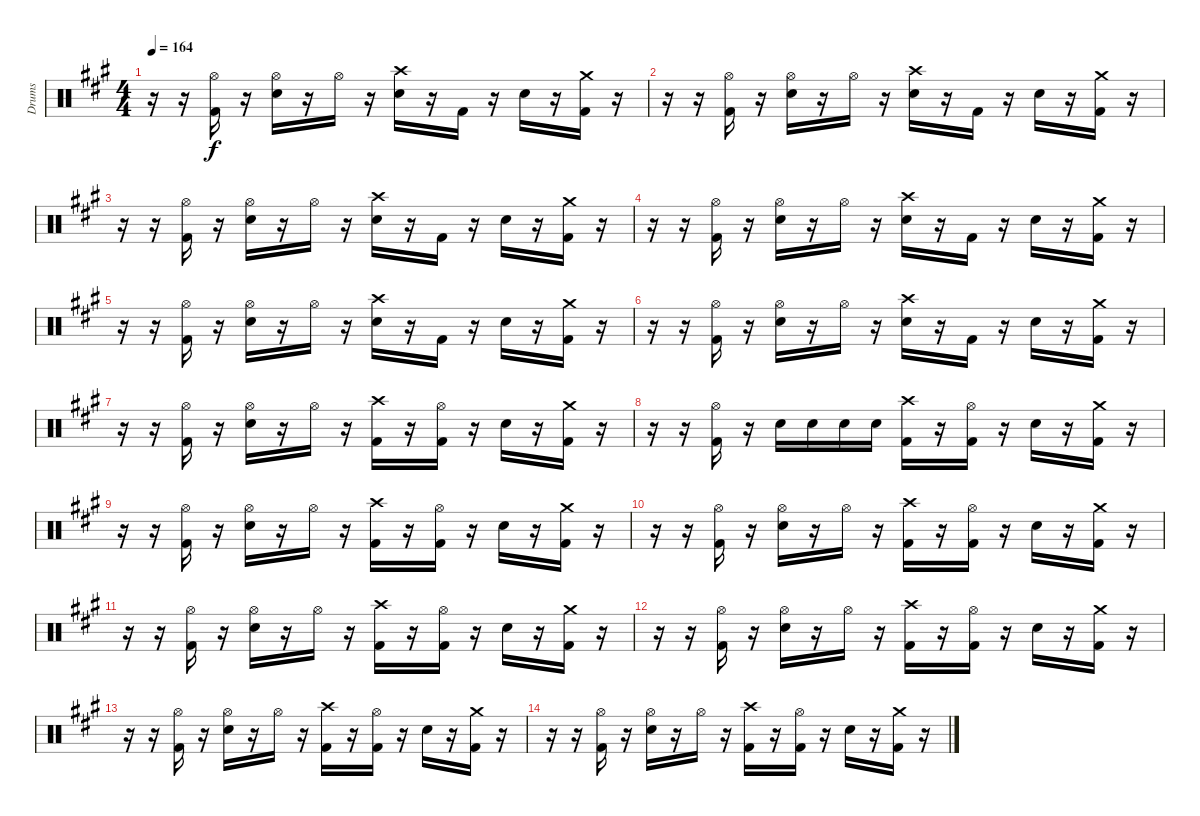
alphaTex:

\track ("Drums" "Drums") {instrument percussion}
\staff {score}
\articulation defaults
\ts (4 4)
\tempo 164
\clef neutral
\ks a
r.16{dy f} r.16 ("Hi-Hat (open)" "Kick (hit) 2").16 r.16 ("Hi-Hat (open)" "Electric Snare (hit)").16 r.16 "Hi-Hat (open)".16 r.16 ("Crash high (hit)" "Electric Snare (hit)").16 r.16 "Kick (hit) 2".16 r.16 "Electric Snare (hit)".16 r.16 ("Crash medium (hit)" "Kick (hit) 2").16 r.16 |
r.16 r.16 ("Hi-Hat (open)" "Kick (hit) 2").16 r.16 ("Hi-Hat (open)" "Electric Snare (hit)").16 r.16 "Hi-Hat (open)".16 r.16 ("Crash high (hit)" "Electric Snare (hit)").16 r.16 "Kick (hit) 2".16 r.16 "Electric Snare (hit)".16 r.16 ("Crash medium (hit)" "Kick (hit) 2").16 r.16 |
r.16 r.16 ("Hi-Hat (open)" "Kick (hit) 2").16 r.16 ("Hi-Hat (open)" "Electric Snare (hit)").16 r.16 "Hi-Hat (open)".16 r.16 ("Crash high (hit)" "Electric Snare (hit)").16 r.16 "Kick (hit) 2".16 r.16 "Electric Snare (hit)".16 r.16 ("Crash medium (hit)" "Kick (hit) 2").16 r.16 |
r.16 r.16 ("Hi-Hat (open)" "Kick (hit) 2").16 r.16 ("Hi-Hat (open)" "Electric Snare (hit)").16 r.16 "Hi-Hat (open)".16 r.16 ("Crash high (hit)" "Electric Snare (hit)").16 r.16 "Kick (hit) 2".16 r.16 "Electric Snare (hit)".16 r.16 ("Crash medium (hit)" "Kick (hit) 2").16 r.16 |
r.16 r.16 ("Hi-Hat (open)" "Kick (hit) 2").16 r.16 ("Hi-Hat (open)" "Electric Snare (hit)").16 r.16 "Hi-Hat (open)".16 r.16 ("Crash high (hit)" "Electric Snare (hit)").16 r.16 "Kick (hit) 2".16 r.16 "Electric Snare (hit)".16 r.16 ("Crash medium (hit)" "Kick (hit) 2").16 r.16 |
r.16 r.16 ("Hi-Hat (open)" "Kick (hit) 2").16 r.16 ("Hi-Hat (open)" "Electric Snare (hit)").16 r.16 "Hi-Hat (open)".16 r.16 ("Crash high (hit)" "Electric Snare (hit)").16 r.16 "Kick (hit) 2".16 r.16 "Electric Snare (hit)".16 r.16 ("Crash medium (hit)" "Kick (hit) 2").16 r.16 |
r.16 r.16 ("Hi-Hat (open)" "Kick (hit) 2").16 r.16 ("Hi-Hat (open)" "Electric Snare (hit)").16 r.16 "Hi-Hat (open)".16 r.16 ("Crash high (hit)" "Kick (hit) 2").16 r.16 ("Hi-Hat (open)" "Kick (hit) 2").16 r.16 "Electric Snare (hit)".16 r.16 ("Crash medium (hit)" "Kick (hit) 2").16 r.16 |
r.16 r.16 ("Hi-Hat (open)" "Kick (hit) 2").16 r.16 "Electric Snare (hit)".16 "Electric Snare (hit)".16 "Electric Snare (hit)".16 "Electric Snare (hit)".16 ("Crash high (hit)" "Kick (hit) 2").16 r.16 ("Hi-Hat (open)" "Kick (hit) 2").16 r.16 "Electric Snare (hit)".16 r.16 ("Crash medium (hit)" "Kick (hit) 2").16 r.16 |
r.16 r.16 ("Hi-Hat (open)" "Kick (hit) 2").16 r.16 ("Hi-Hat (open)" "Electric Snare (hit)").16 r.16 "Hi-Hat (open)".16 r.16 ("Crash high (hit)" "Kick (hit) 2").16 r.16 ("Hi-Hat (open)" "Kick (hit) 2").16 r.16 "Electric Snare (hit)".16 r.16 ("Crash medium (hit)" "Kick (hit) 2").16 r.16 |
r.16 r.16 ("Hi-Hat (open)" "Kick (hit) 2").16 r.16 ("Hi-Hat (open)" "Electric Snare (hit)").16 r.16 "Hi-Hat (open)".16 r.16 ("Crash high (hit)" "Kick (hit) 2").16 r.16 ("Hi-Hat (open)" "Kick (hit) 2").16 r.16 "Electric Snare (hit)".16 r.16 ("Crash medium (hit)" "Kick (hit) 2").16 r.16 |
r.16 r.16 ("Hi-Hat (open)" "Kick (hit) 2").16 r.16 ("Hi-Hat (open)" "Electric Snare (hit)").16 r.16 "Hi-Hat (open)".16 r.16 ("Crash high (hit)" "Kick (hit) 2").16 r.16 ("Hi-Hat (open)" "Kick (hit) 2").16 r.16 "Electric Snare (hit)".16 r.16 ("Crash medium (hit)" "Kick (hit) 2").16 r.16 |
r.16 r.16 ("Hi-Hat (open)" "Kick (hit) 2").16 r.16 ("Hi-Hat (open)" "Electric Snare (hit)").16 r.16 "Hi-Hat (open)".16 r.16 ("Crash high (hit)" "Kick (hit) 2").16 r.16 ("Hi-Hat (open)" "Kick (hit) 2").16 r.16 "Electric Snare (hit)".16 r.16 ("Crash medium (hit)" "Kick (hit) 2").16 r.16 |
r.16 r.16 ("Hi-Hat (open)" "Kick (hit) 2").16 r.16 ("Hi-Hat (open)" "Electric Snare (hit)").16 r.16 "Hi-Hat (open)".16 r.16 ("Crash high (hit)" "Kick (hit) 2").16 r.16 ("Hi-Hat (open)" "Kick (hit) 2").16 r.16 "Electric Snare (hit)".16 r.16 ("Crash medium (hit)" "Kick (hit) 2").16 r.16 |
r.16 r.16 ("Hi-Hat (open)" "Kick (hit) 2").16 r.16 ("Hi-Hat (open)" "Electric Snare (hit)").16 r.16 "Hi-Hat (open)".16 r.16 ("Crash high (hit)" "Kick (hit) 2").16 r.16 ("Hi-Hat (open)" "Kick (hit) 2").16 r.16 "Electric Snare (hit)".16 r.16 ("Crash medium (hit)" "Kick (hit) 2").16 r.16
